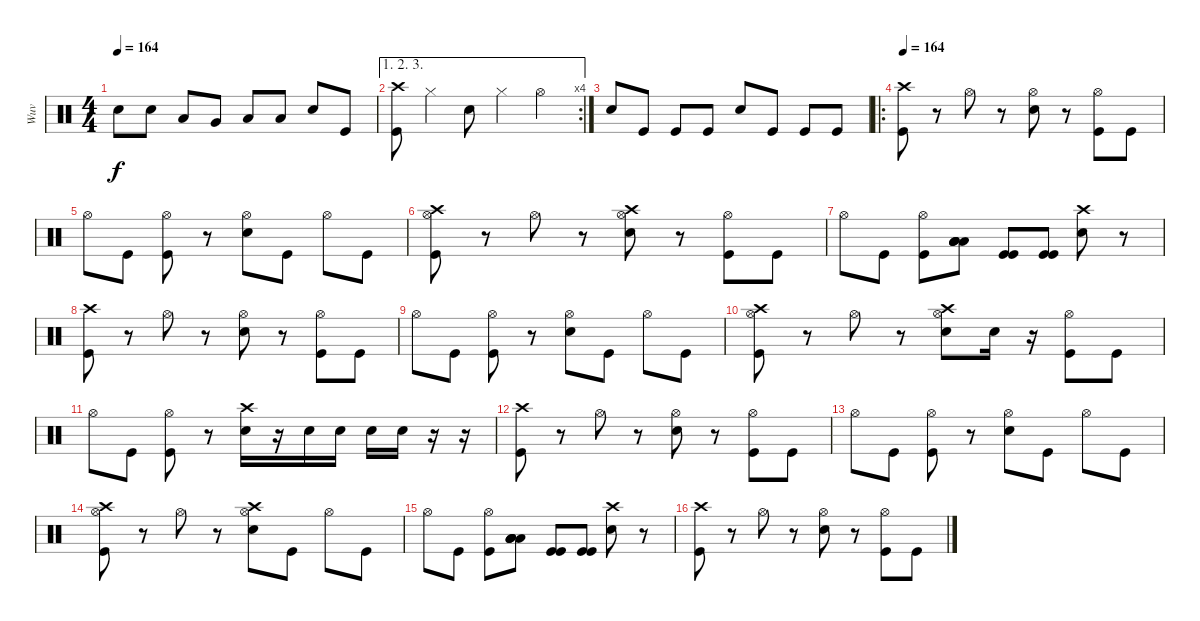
\track ("Wuv" "Wuv") {instrument percussion}
\staff {score}
\articulation defaults
\ts (4 4)
\tempo 164
\clef neutral
\ks c "Snare (hit) 2".8{dy f} "Snare (hit) 2".8 "Low Tom (hit)".8 "Very Low Tom (hit)".8 "Low Floor Tom (hit)".8 "Low Floor Tom (hit)".8 "Snare (hit) 2".8 "Kick (hit)".8
|
\ae (1 2 3)
\rc 4
("Crash high (hit)" "Kick (hit)").8 "Hi-Hat (closed)".4 "Snare (hit) 2".8 "Hi-Hat (closed)".4 "Hi-Hat (open)".4 |
"Snare (hit) 2".8 "Kick (hit)".8 "Kick (hit)".8 "Kick (hit)".8 "Snare (hit) 2".8 "Kick (hit)".8 "Kick (hit)".8 "Kick (hit)".8 |
\ro
\tempo 164
("Crash high (hit)" "Kick (hit)").8 r.8 "Hi-Hat (open)".8 r.8 ("Hi-Hat (open)" "Snare (hit) 2").8 r.8 ("Hi-Hat (open)" "Kick (hit)").8 "Kick (hit)".8 |
"Hi-Hat (open)".8 "Kick (hit)".8 ("Hi-Hat (open)" "Kick (hit)").8 r.8 ("Hi-Hat (open)" "Snare (hit) 2").8 "Kick (hit)".8 "Hi-Hat (open)".8 "Kick (hit)".8 |
("Hi-Hat (open)" "Crash high (hit)" "Kick (hit)").8 r.8 "Hi-Hat (open)".8 r.8 ("Hi-Hat (open)" "Crash high (hit)" "Snare (hit) 2").8 r.8 ("Hi-Hat (open)" "Kick (hit)").8 "Kick (hit)".8 |
"Hi-Hat (open)".8 "Kick (hit)".8 ("Hi-Hat (open)" "Kick (hit)").8 ("Low Floor Tom (hit)" "Low Floor Tom (hit)" "Low Floor Tom (hit)" "Low Floor Tom (hit)").8 ("Kick (hit)" "Kick (hit)").8 ("Kick (hit)" "Kick (hit)").8 ("Crash high (hit)" "Snare (hit) 2").8 r.8 |
("Crash high (hit)" "Kick (hit)").8 r.8 "Hi-Hat (open)".8 r.8 ("Hi-Hat (open)" "Snare (hit) 2").8 r.8 ("Hi-Hat (open)" "Kick (hit)").8 "Kick (hit)".8 |
"Hi-Hat (open)".8 "Kick (hit)".8 ("Hi-Hat (open)" "Kick (hit)").8 r.8 ("Hi-Hat (open)" "Snare (hit) 2").8 "Kick (hit)".8 "Hi-Hat (open)".8 "Kick (hit)".8 |
("Hi-Hat (open)" "Crash high (hit)" "Kick (hit)").8 r.8 "Hi-Hat (open)".8 r.8 ("Hi-Hat (open)" "Crash high (hit)" "Snare (hit) 2").8 "Snare (hit) 2".16 r.16 ("Hi-Hat (open)" "Kick (hit)").8 "Kick (hit)".8 |
"Hi-Hat (open)".8 "Kick (hit)".8 ("Hi-Hat (open)" "Kick (hit)").8 r.8 ("Crash high (hit)" "Snare (hit) 2").16 r.16 "Snare (hit) 2".16 "Snare (hit) 2".16 "Snare (hit) 2".16 "Snare (hit) 2".16 r.16 r.16 |
("Crash high (hit)" "Kick (hit)").8 r.8 "Hi-Hat (open)".8 r.8 ("Hi-Hat (open)" "Snare (hit) 2").8 r.8 ("Hi-Hat (open)" "Kick (hit)").8 "Kick (hit)".8 |
"Hi-Hat (open)".8 "Kick (hit)".8 ("Hi-Hat (open)" "Kick (hit)").8 r.8 ("Hi-Hat (open)" "Snare (hit) 2").8 "Kick (hit)".8 "Hi-Hat (open)".8 "Kick (hit)".8 |
("Hi-Hat (open)" "Crash high (hit)" "Kick (hit)").8 r.8 "Hi-Hat (open)".8 r.8 ("Hi-Hat (open)" "Crash high (hit)" "Snare (hit) 2").8 "Kick (hit)".8 "Hi-Hat (open)".8 "Kick (hit)".8 |
"Hi-Hat (open)".8 "Kick (hit)".8 ("Hi-Hat (open)" "Kick (hit)").8 ("Low Floor Tom (hit)" "Low Floor Tom (hit)" "Low Floor Tom (hit)" "Low Floor Tom (hit)").8 ("Kick (hit)" "Kick (hit)").8 ("Kick (hit)" "Kick (hit)").8 ("Crash high (hit)" "Snare (hit) 2").8 r.8 |
("Crash high (hit)" "Kick (hit)").8 r.8 "Hi-Hat (open)".8 r.8 ("Hi-Hat (open)" "Snare (hit) 2").8 r.8 ("Hi-Hat (open)" "Kick (hit)").8 "Kick (hit)".8
